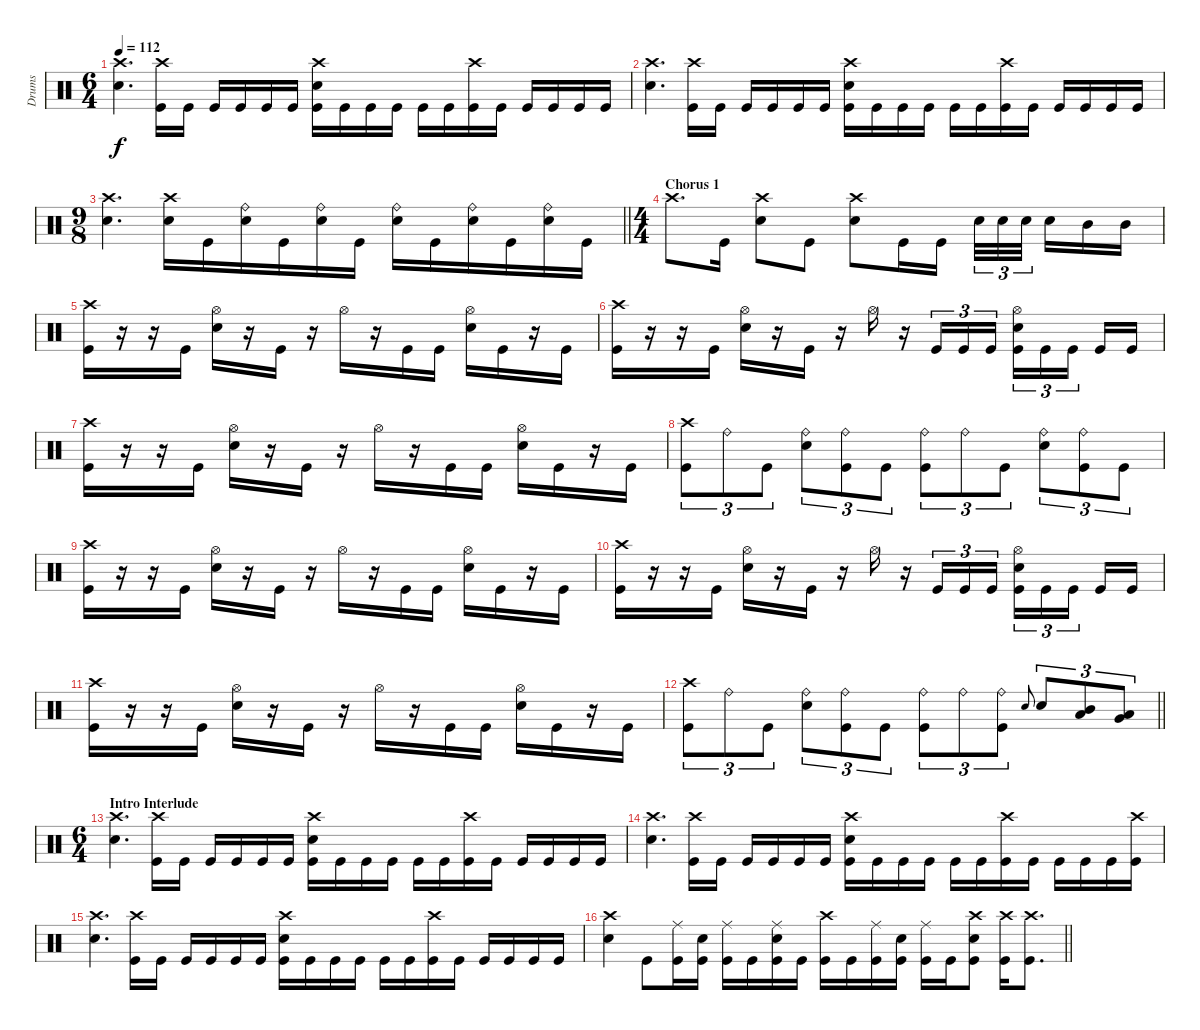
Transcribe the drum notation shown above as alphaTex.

\track ("Drums" "Drums") {instrument percussion}
\staff {score}
\articulation defaults
\ts (6 4)
\tempo 112
\clef neutral
\ks c
("Crash high (hit)" "Snare (hit) 2").4{d dy f} ("Crash high (hit)" "Kick (hit)").16 "Kick (hit)".16 "Kick (hit)".16 "Kick (hit)".16 "Kick (hit)".16 "Kick (hit)".16 ("Crash high (hit)" "Snare (hit) 2" "Kick (hit)").16 "Kick (hit)".16 "Kick (hit)".16 "Kick (hit)".16 "Kick (hit)".16 "Kick (hit)".16 ("Crash high (hit)" "Kick (hit)").16 "Kick (hit)".16 "Kick (hit)".16 "Kick (hit)".16 "Kick (hit)".16 "Kick (hit)".16 |
("Crash high (hit)" "Snare (hit) 2").4{d} ("Crash high (hit)" "Kick (hit)").16 "Kick (hit)".16 "Kick (hit)".16 "Kick (hit)".16 "Kick (hit)".16 "Kick (hit)".16 ("Crash high (hit)" "Snare (hit) 2" "Kick (hit)").16 "Kick (hit)".16 "Kick (hit)".16 "Kick (hit)".16 "Kick (hit)".16 "Kick (hit)".16 ("Crash high (hit)" "Kick (hit)").16 "Kick (hit)".16 "Kick (hit)".16 "Kick (hit)".16 "Kick (hit)".16 "Kick (hit)".16 |
\ts (9 8)
\barLineRight lightlight
("Crash high (hit)" "Snare (hit) 2").4{d} ("Crash high (hit)" "Snare (hit) 2").16 "Kick (hit)".16 ("Ride (bell)" "Snare (hit) 2").16 "Kick (hit)".16 ("Ride (bell)" "Snare (hit) 2").16 "Kick (hit)".16 ("Ride (bell)" "Snare (hit) 2").16 "Kick (hit)".16 ("Ride (bell)" "Snare (hit) 2").16 "Kick (hit)".16 ("Ride (bell)" "Snare (hit) 2").16 "Kick (hit)".16 |
\ts (4 4)
\section ("" "Chorus 1")
"Crash high (hit)".8{d} "Kick (hit)".16 ("Crash high (hit)" "Snare (hit) 2").8 "Kick (hit)".8 ("Crash high (hit)" "Snare (hit) 2").8 "Kick (hit)".16 "Kick (hit)".16 "Snare (hit) 2".32{tu (3 2)} "Snare (hit) 2".32{tu (3 2)} "Snare (hit) 2".32{tu (3 2) beam splitsecondary} "Snare (hit) 2".16 "Mid Tom (hit)".16 "Mid Tom (hit)".16 |
("Crash high (hit)" "Kick (hit)").16 r.16 r.16 "Kick (hit)".16 ("Hi-Hat (open)" "Snare (hit) 2").16 r.16 "Kick (hit)".16 r.16 "Hi-Hat (open)".16 r.16 "Kick (hit)".16 "Kick (hit)".16 ("Hi-Hat (open)" "Snare (hit) 2").16 "Kick (hit)".16 r.16 "Kick (hit)".16 |
("Crash high (hit)" "Kick (hit)").16 r.16 r.16 "Kick (hit)".16 ("Hi-Hat (open)" "Snare (hit) 2").16 r.16 "Kick (hit)".16 r.16 "Hi-Hat (open)".16 r.16 "Kick (hit)".16{tu (3 2)} "Kick (hit)".16{tu (3 2)} "Kick (hit)".16{tu (3 2)} ("Hi-Hat (open)" "Snare (hit) 2" "Kick (hit)").16{tu (3 2)} "Kick (hit)".16{tu (3 2)} "Kick (hit)".16{tu (3 2) beam splitsecondary} "Kick (hit)".16 "Kick (hit)".16 |
("Crash high (hit)" "Kick (hit)").16 r.16 r.16 "Kick (hit)".16 ("Hi-Hat (open)" "Snare (hit) 2").16 r.16 "Kick (hit)".16 r.16 "Hi-Hat (open)".16 r.16 "Kick (hit)".16 "Kick (hit)".16 ("Hi-Hat (open)" "Snare (hit) 2").16 "Kick (hit)".16 r.16 "Kick (hit)".16 |
("Crash high (hit)" "Kick (hit)").8{tu (3 2)} "Ride (bell)".8{tu (3 2)} "Kick (hit)".8{tu (3 2)} ("Ride (bell)" "Snare (hit) 2").8{tu (3 2)} ("Ride (bell)" "Kick (hit)").8{tu (3 2)} "Kick (hit)".8{tu (3 2)} ("Ride (bell)" "Kick (hit)").8{tu (3 2)} "Ride (bell)".8{tu (3 2)} "Kick (hit)".8{tu (3 2)} ("Ride (bell)" "Snare (hit) 2").8{tu (3 2)} ("Ride (bell)" "Kick (hit)").8{tu (3 2)} "Kick (hit)".8{tu (3 2)} |
("Crash high (hit)" "Kick (hit)").16 r.16 r.16 "Kick (hit)".16 ("Hi-Hat (open)" "Snare (hit) 2").16 r.16 "Kick (hit)".16 r.16 "Hi-Hat (open)".16 r.16 "Kick (hit)".16 "Kick (hit)".16 ("Hi-Hat (open)" "Snare (hit) 2").16 "Kick (hit)".16 r.16 "Kick (hit)".16 |
("Crash high (hit)" "Kick (hit)").16 r.16 r.16 "Kick (hit)".16 ("Hi-Hat (open)" "Snare (hit) 2").16 r.16 "Kick (hit)".16 r.16 "Hi-Hat (open)".16 r.16 "Kick (hit)".16{tu (3 2)} "Kick (hit)".16{tu (3 2)} "Kick (hit)".16{tu (3 2)} ("Hi-Hat (open)" "Snare (hit) 2" "Kick (hit)").16{tu (3 2)} "Kick (hit)".16{tu (3 2)} "Kick (hit)".16{tu (3 2) beam splitsecondary} "Kick (hit)".16 "Kick (hit)".16 |
("Crash high (hit)" "Kick (hit)").16 r.16 r.16 "Kick (hit)".16 ("Hi-Hat (open)" "Snare (hit) 2").16 r.16 "Kick (hit)".16 r.16 "Hi-Hat (open)".16 r.16 "Kick (hit)".16 "Kick (hit)".16 ("Hi-Hat (open)" "Snare (hit) 2").16 "Kick (hit)".16 r.16 "Kick (hit)".16 |
\barLineRight lightlight
("Crash high (hit)" "Kick (hit)").8{tu (3 2)} "Ride (bell)".8{tu (3 2)} "Kick (hit)".8{tu (3 2)} ("Ride (bell)" "Snare (hit) 2").8{tu (3 2)} ("Ride (bell)" "Kick (hit)").8{tu (3 2)} "Kick (hit)".8{tu (3 2)} ("Ride (bell)" "Kick (hit)").8{tu (3 2)} "Ride (bell)".8{tu (3 2)} ("Ride (bell)" "Kick (hit)").8{tu (3 2)} "Snare (hit) 2".8{gr onbeat} "Snare (hit) 2".8{tu (3 2)} ("Mid Tom (hit)" "Low Tom (hit)").8{tu (3 2)} ("Low Tom (hit)" "Very Low Tom (hit)").8{tu (3 2)} |
\ts (6 4)
\section ("" "Intro Interlude")
("Crash high (hit)" "Snare (hit) 2").4{d} ("Crash high (hit)" "Kick (hit)").16 "Kick (hit)".16 "Kick (hit)".16 "Kick (hit)".16 "Kick (hit)".16 "Kick (hit)".16 ("Crash high (hit)" "Snare (hit) 2" "Kick (hit)").16 "Kick (hit)".16 "Kick (hit)".16 "Kick (hit)".16 "Kick (hit)".16 "Kick (hit)".16 ("Crash high (hit)" "Kick (hit)").16 "Kick (hit)".16 "Kick (hit)".16 "Kick (hit)".16 "Kick (hit)".16 "Kick (hit)".16 |
("Crash high (hit)" "Snare (hit) 2").4{d} ("Crash high (hit)" "Kick (hit)").16 "Kick (hit)".16 "Kick (hit)".16 "Kick (hit)".16 "Kick (hit)".16 "Kick (hit)".16 ("Crash high (hit)" "Snare (hit) 2" "Kick (hit)").16 "Kick (hit)".16 "Kick (hit)".16 "Kick (hit)".16 "Kick (hit)".16 "Kick (hit)".16 ("Crash high (hit)" "Kick (hit)").16 "Kick (hit)".16 "Kick (hit)".16 "Kick (hit)".16 "Kick (hit)".16 ("Crash high (hit)" "Kick (hit)").16 |
("Crash high (hit)" "Snare (hit) 2").4{d} ("Crash high (hit)" "Kick (hit)").16 "Kick (hit)".16 "Kick (hit)".16 "Kick (hit)".16 "Kick (hit)".16 "Kick (hit)".16 ("Crash high (hit)" "Snare (hit) 2" "Kick (hit)").16 "Kick (hit)".16 "Kick (hit)".16 "Kick (hit)".16 "Kick (hit)".16 "Kick (hit)".16 ("Crash high (hit)" "Kick (hit)").16 "Kick (hit)".16 "Kick (hit)".16 "Kick (hit)".16 "Kick (hit)".16 "Kick (hit)".16 |
\barLineRight lightlight
("Crash high (hit)" "Snare (hit) 2").4 "Kick (hit)".8 ("Ride (middle)" "Kick (hit)").16 ("Snare (hit) 2" "Kick (hit)").16 ("Ride (middle)" "Kick (hit)").16 "Kick (hit)".16 ("Ride (middle)" "Snare (hit) 2" "Kick (hit)").16 "Kick (hit)".16 ("Crash high (hit)" "Kick (hit)").16 "Kick (hit)".16 ("Ride (middle)" "Kick (hit)").16 ("Snare (hit) 2" "Kick (hit)").16 ("Ride (middle)" "Kick (hit)").16 "Kick (hit)".16 ("Crash high (hit)" "Snare (hit) 2" "Kick (hit)").8 ("Crash high (hit)" "Kick (hit)").16 ("Crash high (hit)" "Kick (hit)").8{d}
